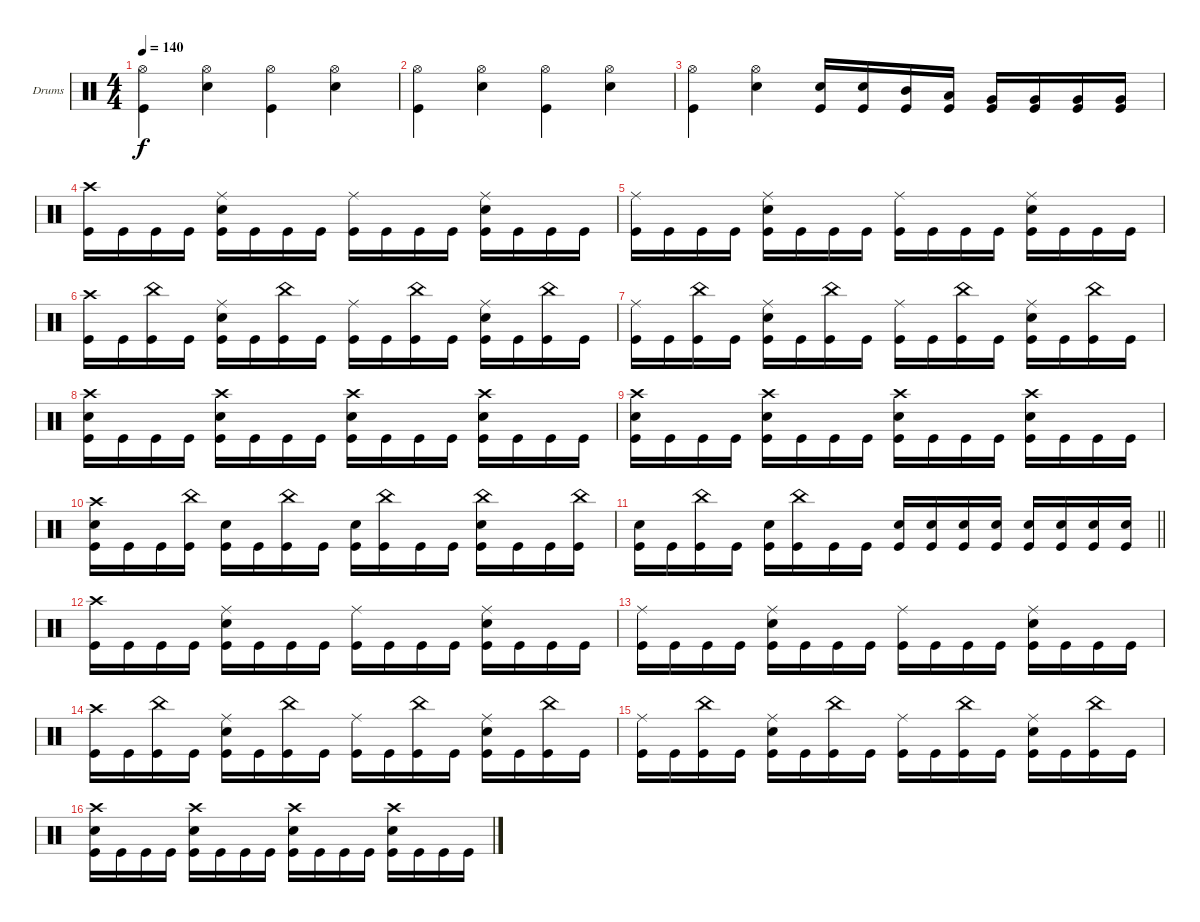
\bracketExtendMode groupsimilarinstruments
\firstSystemTrackNameOrientation horizontal
\otherSystemsTrackNameOrientation horizontal
\track ("Drumkit" "Drums") {instrument percussion}
\staff {score}
\articulation defaults
\ts (4 4)
\tempo 140
\clef neutral
\ks c
("Hi-Hat (open)" "Kick (hit)").4{dy f} ("Hi-Hat (open)" "Snare (hit) 2").4 ("Hi-Hat (open)" "Kick (hit)").4 ("Hi-Hat (open)" "Snare (hit) 2").4 |
("Hi-Hat (open)" "Kick (hit)").4 ("Hi-Hat (open)" "Snare (hit) 2").4 ("Hi-Hat (open)" "Kick (hit)").4 ("Hi-Hat (open)" "Snare (hit) 2").4 |
("Hi-Hat (open)" "Kick (hit)").4 ("Hi-Hat (open)" "Snare (hit) 2").4 ("Snare (hit) 2" "Kick (hit)").16 ("Snare (hit) 2" "Kick (hit)").16 ("Mid Tom (hit)" "Kick (hit)").16 ("Low Tom (hit)" "Kick (hit)").16 ("Very Low Tom (hit)" "Kick (hit)").16 ("Very Low Tom (hit)" "Kick (hit)").16 ("Very Low Tom (hit)" "Kick (hit)").16 ("Very Low Tom (hit)" "Kick (hit)").16 |
("Crash high (hit)" "Kick (hit)").16 "Kick (hit)".16 "Kick (hit)".16 "Kick (hit)".16 ("Ride (middle)" "Snare (hit) 2" "Kick (hit)").16 "Kick (hit)".16 "Kick (hit)".16 "Kick (hit)".16 ("Ride (middle)" "Kick (hit)").16 "Kick (hit)".16 "Kick (hit)".16 "Kick (hit)".16 ("Ride (middle)" "Snare (hit) 2" "Kick (hit)").16 "Kick (hit)".16 "Kick (hit)".16 "Kick (hit)".16 |
("Ride (middle)" "Kick (hit)").16 "Kick (hit)".16 "Kick (hit)".16 "Kick (hit)".16 ("Ride (middle)" "Snare (hit) 2" "Kick (hit)").16 "Kick (hit)".16 "Kick (hit)".16 "Kick (hit)".16 ("Ride (middle)" "Kick (hit)").16 "Kick (hit)".16 "Kick (hit)".16 "Kick (hit)".16 ("Ride (middle)" "Snare (hit) 2" "Kick (hit)").16 "Kick (hit)".16 "Kick (hit)".16 "Kick (hit)".16 |
("Crash high (hit)" "Kick (hit)").16 "Kick (hit)".16 ("China (hit)" "Kick (hit)").16 "Kick (hit)".16 ("Ride (middle)" "Snare (hit) 2" "Kick (hit)").16 "Kick (hit)".16 ("China (hit)" "Kick (hit)").16 "Kick (hit)".16 ("Ride (middle)" "Kick (hit)").16 "Kick (hit)".16 ("China (hit)" "Kick (hit)").16 "Kick (hit)".16 ("Ride (middle)" "Snare (hit) 2" "Kick (hit)").16 "Kick (hit)".16 ("China (hit)" "Kick (hit)").16 "Kick (hit)".16 |
("Ride (middle)" "Kick (hit)").16 "Kick (hit)".16 ("China (hit)" "Kick (hit)").16 "Kick (hit)".16 ("Ride (middle)" "Snare (hit) 2" "Kick (hit)").16 "Kick (hit)".16 ("China (hit)" "Kick (hit)").16 "Kick (hit)".16 ("Ride (middle)" "Kick (hit)").16 "Kick (hit)".16 ("China (hit)" "Kick (hit)").16 "Kick (hit)".16 ("Ride (middle)" "Snare (hit) 2" "Kick (hit)").16 "Kick (hit)".16 ("China (hit)" "Kick (hit)").16 "Kick (hit)".16 |
("Crash high (hit)" "Snare (hit) 2" "Kick (hit)").16 "Kick (hit)".16 "Kick (hit)".16 "Kick (hit)".16 ("Crash high (hit)" "Snare (hit) 2" "Kick (hit)").16 "Kick (hit)".16 "Kick (hit)".16 "Kick (hit)".16 ("Crash high (hit)" "Snare (hit) 2" "Kick (hit)").16 "Kick (hit)".16 "Kick (hit)".16 "Kick (hit)".16 ("Crash high (hit)" "Snare (hit) 2" "Kick (hit)").16 "Kick (hit)".16 "Kick (hit)".16 "Kick (hit)".16 |
("Crash high (hit)" "Snare (hit) 2" "Kick (hit)").16 "Kick (hit)".16 "Kick (hit)".16 "Kick (hit)".16 ("Crash high (hit)" "Snare (hit) 2" "Kick (hit)").16 "Kick (hit)".16 "Kick (hit)".16 "Kick (hit)".16 ("Crash high (hit)" "Snare (hit) 2" "Kick (hit)").16 "Kick (hit)".16 "Kick (hit)".16 "Kick (hit)".16 ("Crash high (hit)" "Snare (hit) 2" "Kick (hit)").16 "Kick (hit)".16 "Kick (hit)".16 "Kick (hit)".16 |
("Crash high (hit)" "Snare (hit) 2" "Kick (hit)").16 "Kick (hit)".16 "Kick (hit)".16 ("China (hit)" "Kick (hit)").16 ("Snare (hit) 2" "Kick (hit)").16 "Kick (hit)".16 ("China (hit)" "Kick (hit)").16 "Kick (hit)".16 ("Snare (hit) 2" "Kick (hit)").16 ("China (hit)" "Kick (hit)").16 "Kick (hit)".16 "Kick (hit)".16 ("China (hit)" "Snare (hit) 2" "Kick (hit)").16 "Kick (hit)".16 "Kick (hit)".16 ("China (hit)" "Kick (hit)").16 |
\barLineRight lightlight
("Snare (hit) 2" "Kick (hit)").16 "Kick (hit)".16 ("China (hit)" "Kick (hit)").16 "Kick (hit)".16 ("Snare (hit) 2" "Kick (hit)").16 ("China (hit)" "Kick (hit)").16 "Kick (hit)".16 "Kick (hit)".16 ("Snare (hit) 2" "Kick (hit)").16 ("Snare (hit) 2" "Kick (hit)").16 ("Snare (hit) 2" "Kick (hit)").16 ("Snare (hit) 2" "Kick (hit)").16 ("Snare (hit) 2" "Kick (hit)").16 ("Snare (hit) 2" "Kick (hit)").16 ("Snare (hit) 2" "Kick (hit)").16 ("Snare (hit) 2" "Kick (hit)").16 |
("Crash high (hit)" "Kick (hit)").16 "Kick (hit)".16 "Kick (hit)".16 "Kick (hit)".16 ("Ride (middle)" "Snare (hit) 2" "Kick (hit)").16 "Kick (hit)".16 "Kick (hit)".16 "Kick (hit)".16 ("Ride (middle)" "Kick (hit)").16 "Kick (hit)".16 "Kick (hit)".16 "Kick (hit)".16 ("Ride (middle)" "Snare (hit) 2" "Kick (hit)").16 "Kick (hit)".16 "Kick (hit)".16 "Kick (hit)".16 |
("Ride (middle)" "Kick (hit)").16 "Kick (hit)".16 "Kick (hit)".16 "Kick (hit)".16 ("Ride (middle)" "Snare (hit) 2" "Kick (hit)").16 "Kick (hit)".16 "Kick (hit)".16 "Kick (hit)".16 ("Ride (middle)" "Kick (hit)").16 "Kick (hit)".16 "Kick (hit)".16 "Kick (hit)".16 ("Ride (middle)" "Snare (hit) 2" "Kick (hit)").16 "Kick (hit)".16 "Kick (hit)".16 "Kick (hit)".16 |
("Crash high (hit)" "Kick (hit)").16 "Kick (hit)".16 ("China (hit)" "Kick (hit)").16 "Kick (hit)".16 ("Ride (middle)" "Snare (hit) 2" "Kick (hit)").16 "Kick (hit)".16 ("China (hit)" "Kick (hit)").16 "Kick (hit)".16 ("Ride (middle)" "Kick (hit)").16 "Kick (hit)".16 ("China (hit)" "Kick (hit)").16 "Kick (hit)".16 ("Ride (middle)" "Snare (hit) 2" "Kick (hit)").16 "Kick (hit)".16 ("China (hit)" "Kick (hit)").16 "Kick (hit)".16 |
("Ride (middle)" "Kick (hit)").16 "Kick (hit)".16 ("China (hit)" "Kick (hit)").16 "Kick (hit)".16 ("Ride (middle)" "Snare (hit) 2" "Kick (hit)").16 "Kick (hit)".16 ("China (hit)" "Kick (hit)").16 "Kick (hit)".16 ("Ride (middle)" "Kick (hit)").16 "Kick (hit)".16 ("China (hit)" "Kick (hit)").16 "Kick (hit)".16 ("Ride (middle)" "Snare (hit) 2" "Kick (hit)").16 "Kick (hit)".16 ("China (hit)" "Kick (hit)").16 "Kick (hit)".16 |
("Crash high (hit)" "Snare (hit) 2" "Kick (hit)").16 "Kick (hit)".16 "Kick (hit)".16 "Kick (hit)".16 ("Crash high (hit)" "Snare (hit) 2" "Kick (hit)").16 "Kick (hit)".16 "Kick (hit)".16 "Kick (hit)".16 ("Crash high (hit)" "Snare (hit) 2" "Kick (hit)").16 "Kick (hit)".16 "Kick (hit)".16 "Kick (hit)".16 ("Crash high (hit)" "Snare (hit) 2" "Kick (hit)").16 "Kick (hit)".16 "Kick (hit)".16 "Kick (hit)".16
